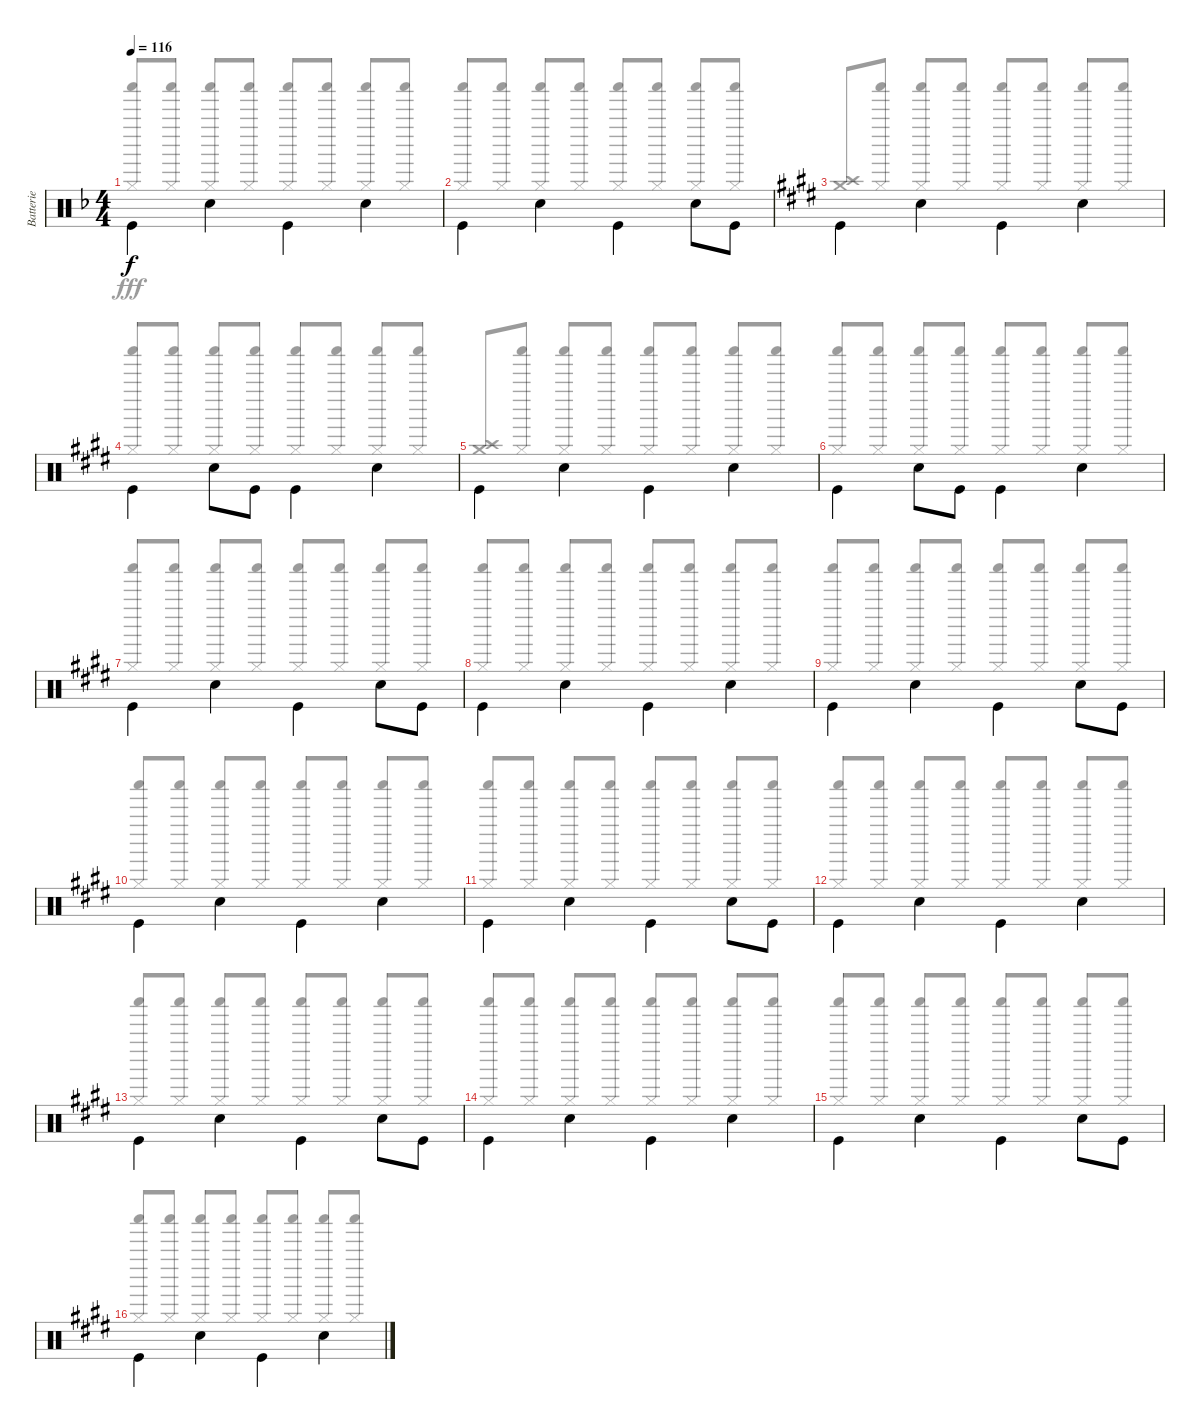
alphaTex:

\track ("Batterie" "Batterie") {instrument percussion}
\staff {score}
\articulation defaults
\voice
\ts (4 4)
\tempo 116
\clef neutral
\ks f "Kick (hit)".4{dy f beam Down} "Snare (hit) 2".4{beam Down} "Kick (hit)".4{beam Down} "Snare (hit) 2".4{beam Down}
|
"Kick (hit)".4{beam Down} "Snare (hit) 2".4{beam Down} "Kick (hit)".4{beam Down} "Snare (hit) 2".8{beam Down} "Kick (hit)".8{beam Down} |
\ks e "Kick (hit)".4{beam Down} "Snare (hit) 2".4{beam Down} "Kick (hit)".4{beam Down} "Snare (hit) 2".4{beam Down}
|
"Kick (hit)".4{beam Down} "Snare (hit) 2".8{beam Down} "Kick (hit)".8{beam Down} "Kick (hit)".4{beam Down} "Snare (hit) 2".4{beam Down} |
"Kick (hit)".4{beam Down} "Snare (hit) 2".4{beam Down} "Kick (hit)".4{beam Down} "Snare (hit) 2".4{beam Down} |
"Kick (hit)".4{beam Down} "Snare (hit) 2".8{beam Down} "Kick (hit)".8{beam Down} "Kick (hit)".4{beam Down} "Snare (hit) 2".4{beam Down} |
"Kick (hit)".4{beam Down} "Snare (hit) 2".4{beam Down} "Kick (hit)".4{beam Down} "Snare (hit) 2".8{beam Down} "Kick (hit)".8{beam Down} |
"Kick (hit)".4{beam Down} "Snare (hit) 2".4{beam Down} "Kick (hit)".4{beam Down} "Snare (hit) 2".4{beam Down} |
"Kick (hit)".4{beam Down} "Snare (hit) 2".4{beam Down} "Kick (hit)".4{beam Down} "Snare (hit) 2".8{beam Down} "Kick (hit)".8{beam Down} |
"Kick (hit)".4{beam Down} "Snare (hit) 2".4{beam Down} "Kick (hit)".4{beam Down} "Snare (hit) 2".4{beam Down} |
"Kick (hit)".4{beam Down} "Snare (hit) 2".4{beam Down} "Kick (hit)".4{beam Down} "Snare (hit) 2".8{beam Down} "Kick (hit)".8{beam Down} |
"Kick (hit)".4{beam Down} "Snare (hit) 2".4{beam Down} "Kick (hit)".4{beam Down} "Snare (hit) 2".4{beam Down} |
"Kick (hit)".4{beam Down} "Snare (hit) 2".4{beam Down} "Kick (hit)".4{beam Down} "Snare (hit) 2".8{beam Down} "Kick (hit)".8{beam Down} |
"Kick (hit)".4{beam Down} "Snare (hit) 2".4{beam Down} "Kick (hit)".4{beam Down} "Snare (hit) 2".4{beam Down} |
"Kick (hit)".4{beam Down} "Snare (hit) 2".4{beam Down} "Kick (hit)".4{beam Down} "Snare (hit) 2".8{beam Down} "Kick (hit)".8{beam Down} |
"Kick (hit)".4{beam Down} "Snare (hit) 2".4{beam Down} "Kick (hit)".4{beam Down} "Snare (hit) 2".4{beam Down}
\voice
\clef neutral
\ottava regular
\simile none
\ks f
("Shaker (hit)" "Hi-Hat (closed)").8{dy fff beam Up} ("Shaker (hit)" "Hi-Hat (closed)").8{beam Up} ("Shaker (hit)" "Hi-Hat (closed)").8{beam Up} ("Shaker (hit)" "Hi-Hat (closed)").8{beam Up} ("Shaker (hit)" "Hi-Hat (closed)").8{beam Up} ("Shaker (hit)" "Hi-Hat (closed)").8{beam Up} ("Shaker (hit)" "Hi-Hat (closed)").8{beam Up} ("Shaker (hit)" "Hi-Hat (closed)").8{beam Up} |
("Shaker (hit)" "Hi-Hat (closed)").8{beam Up} ("Shaker (hit)" "Hi-Hat (closed)").8{beam Up} ("Shaker (hit)" "Hi-Hat (closed)").8{beam Up} ("Shaker (hit)" "Hi-Hat (closed)").8{beam Up} ("Shaker (hit)" "Hi-Hat (closed)").8{beam Up} ("Shaker (hit)" "Hi-Hat (closed)").8{beam Up} ("Shaker (hit)" "Hi-Hat (closed)").8{beam Up} ("Shaker (hit)" "Hi-Hat (closed)").8{beam Up} |
\ks e
("Crash medium (hit)" "Crash high (hit)").8{beam Up} ("Shaker (hit)" "Hi-Hat (closed)").8{beam Up} ("Shaker (hit)" "Hi-Hat (closed)").8{beam Up} ("Shaker (hit)" "Hi-Hat (closed)").8{beam Up} ("Shaker (hit)" "Hi-Hat (closed)").8{beam Up} ("Shaker (hit)" "Hi-Hat (closed)").8{beam Up} ("Shaker (hit)" "Hi-Hat (closed)").8{beam Up} ("Shaker (hit)" "Hi-Hat (closed)").8{beam Up} |
("Shaker (hit)" "Hi-Hat (closed)").8{beam Up} ("Shaker (hit)" "Hi-Hat (closed)").8{beam Up} ("Shaker (hit)" "Hi-Hat (closed)").8{beam Up} ("Shaker (hit)" "Hi-Hat (closed)").8{beam Up} ("Shaker (hit)" "Hi-Hat (closed)").8{beam Up} ("Shaker (hit)" "Hi-Hat (closed)").8{beam Up} ("Shaker (hit)" "Hi-Hat (closed)").8{beam Up} ("Shaker (hit)" "Hi-Hat (closed)").8{beam Up} |
("Crash medium (hit)" "Crash high (hit)").8{beam Up} ("Shaker (hit)" "Hi-Hat (closed)").8{beam Up} ("Shaker (hit)" "Hi-Hat (closed)").8{beam Up} ("Shaker (hit)" "Hi-Hat (closed)").8{beam Up} ("Shaker (hit)" "Hi-Hat (closed)").8{beam Up} ("Shaker (hit)" "Hi-Hat (closed)").8{beam Up} ("Shaker (hit)" "Hi-Hat (closed)").8{beam Up} ("Shaker (hit)" "Hi-Hat (closed)").8{beam Up} |
("Shaker (hit)" "Hi-Hat (closed)").8{beam Up} ("Shaker (hit)" "Hi-Hat (closed)").8{beam Up} ("Shaker (hit)" "Hi-Hat (closed)").8{beam Up} ("Shaker (hit)" "Hi-Hat (closed)").8{beam Up} ("Shaker (hit)" "Hi-Hat (closed)").8{beam Up} ("Shaker (hit)" "Hi-Hat (closed)").8{beam Up} ("Shaker (hit)" "Hi-Hat (closed)").8{beam Up} ("Shaker (hit)" "Hi-Hat (closed)").8{beam Up} |
("Shaker (hit)" "Hi-Hat (closed)").8{beam Up} ("Shaker (hit)" "Hi-Hat (closed)").8{beam Up} ("Shaker (hit)" "Hi-Hat (closed)").8{beam Up} ("Shaker (hit)" "Hi-Hat (closed)").8{beam Up} ("Shaker (hit)" "Hi-Hat (closed)").8{beam Up} ("Shaker (hit)" "Hi-Hat (closed)").8{beam Up} ("Shaker (hit)" "Hi-Hat (closed)").8{beam Up} ("Shaker (hit)" "Hi-Hat (closed)").8{beam Up} |
("Shaker (hit)" "Hi-Hat (closed)").8{beam Up} ("Shaker (hit)" "Hi-Hat (closed)").8{beam Up} ("Shaker (hit)" "Hi-Hat (closed)").8{beam Up} ("Shaker (hit)" "Hi-Hat (closed)").8{beam Up} ("Shaker (hit)" "Hi-Hat (closed)").8{beam Up} ("Shaker (hit)" "Hi-Hat (closed)").8{beam Up} ("Shaker (hit)" "Hi-Hat (closed)").8{beam Up} ("Shaker (hit)" "Hi-Hat (closed)").8{beam Up} |
("Shaker (hit)" "Hi-Hat (closed)").8{beam Up} ("Shaker (hit)" "Hi-Hat (closed)").8{beam Up} ("Shaker (hit)" "Hi-Hat (closed)").8{beam Up} ("Shaker (hit)" "Hi-Hat (closed)").8{beam Up} ("Shaker (hit)" "Hi-Hat (closed)").8{beam Up} ("Shaker (hit)" "Hi-Hat (closed)").8{beam Up} ("Shaker (hit)" "Hi-Hat (closed)").8{beam Up} ("Shaker (hit)" "Hi-Hat (closed)").8{beam Up} |
("Shaker (hit)" "Hi-Hat (closed)").8{beam Up} ("Shaker (hit)" "Hi-Hat (closed)").8{beam Up} ("Shaker (hit)" "Hi-Hat (closed)").8{beam Up} ("Shaker (hit)" "Hi-Hat (closed)").8{beam Up} ("Shaker (hit)" "Hi-Hat (closed)").8{beam Up} ("Shaker (hit)" "Hi-Hat (closed)").8{beam Up} ("Shaker (hit)" "Hi-Hat (closed)").8{beam Up} ("Shaker (hit)" "Hi-Hat (closed)").8{beam Up} |
("Shaker (hit)" "Hi-Hat (closed)").8{beam Up} ("Shaker (hit)" "Hi-Hat (closed)").8{beam Up} ("Shaker (hit)" "Hi-Hat (closed)").8{beam Up} ("Shaker (hit)" "Hi-Hat (closed)").8{beam Up} ("Shaker (hit)" "Hi-Hat (closed)").8{beam Up} ("Shaker (hit)" "Hi-Hat (closed)").8{beam Up} ("Shaker (hit)" "Hi-Hat (closed)").8{beam Up} ("Shaker (hit)" "Hi-Hat (closed)").8{beam Up} |
("Shaker (hit)" "Hi-Hat (closed)").8{beam Up} ("Shaker (hit)" "Hi-Hat (closed)").8{beam Up} ("Shaker (hit)" "Hi-Hat (closed)").8{beam Up} ("Shaker (hit)" "Hi-Hat (closed)").8{beam Up} ("Shaker (hit)" "Hi-Hat (closed)").8{beam Up} ("Shaker (hit)" "Hi-Hat (closed)").8{beam Up} ("Shaker (hit)" "Hi-Hat (closed)").8{beam Up} ("Shaker (hit)" "Hi-Hat (closed)").8{beam Up} |
("Shaker (hit)" "Hi-Hat (closed)").8{beam Up} ("Shaker (hit)" "Hi-Hat (closed)").8{beam Up} ("Shaker (hit)" "Hi-Hat (closed)").8{beam Up} ("Shaker (hit)" "Hi-Hat (closed)").8{beam Up} ("Shaker (hit)" "Hi-Hat (closed)").8{beam Up} ("Shaker (hit)" "Hi-Hat (closed)").8{beam Up} ("Shaker (hit)" "Hi-Hat (closed)").8{beam Up} ("Shaker (hit)" "Hi-Hat (closed)").8{beam Up} |
("Shaker (hit)" "Hi-Hat (closed)").8{beam Up} ("Shaker (hit)" "Hi-Hat (closed)").8{beam Up} ("Shaker (hit)" "Hi-Hat (closed)").8{beam Up} ("Shaker (hit)" "Hi-Hat (closed)").8{beam Up} ("Shaker (hit)" "Hi-Hat (closed)").8{beam Up} ("Shaker (hit)" "Hi-Hat (closed)").8{beam Up} ("Shaker (hit)" "Hi-Hat (closed)").8{beam Up} ("Shaker (hit)" "Hi-Hat (closed)").8{beam Up} |
("Shaker (hit)" "Hi-Hat (closed)").8{beam Up} ("Shaker (hit)" "Hi-Hat (closed)").8{beam Up} ("Shaker (hit)" "Hi-Hat (closed)").8{beam Up} ("Shaker (hit)" "Hi-Hat (closed)").8{beam Up} ("Shaker (hit)" "Hi-Hat (closed)").8{beam Up} ("Shaker (hit)" "Hi-Hat (closed)").8{beam Up} ("Shaker (hit)" "Hi-Hat (closed)").8{beam Up} ("Shaker (hit)" "Hi-Hat (closed)").8{beam Up} |
("Shaker (hit)" "Hi-Hat (closed)").8{beam Up} ("Shaker (hit)" "Hi-Hat (closed)").8{beam Up} ("Shaker (hit)" "Hi-Hat (closed)").8{beam Up} ("Shaker (hit)" "Hi-Hat (closed)").8{beam Up} ("Shaker (hit)" "Hi-Hat (closed)").8{beam Up} ("Shaker (hit)" "Hi-Hat (closed)").8{beam Up} ("Shaker (hit)" "Hi-Hat (closed)").8{beam Up} ("Shaker (hit)" "Hi-Hat (closed)").8{beam Up}
